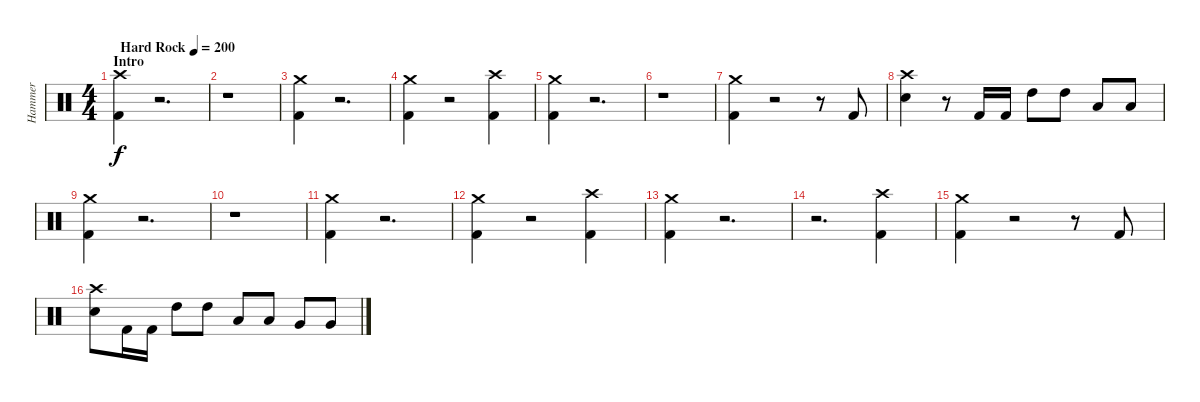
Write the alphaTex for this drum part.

\track ("Hammer" "Hammer") {instrument percussion}
\staff {score}
\articulation defaults
\ts (4 4)
\section ("" "Intro")
\tempo (200 "Hard Rock")
\clef neutral
\ks c
("Crash high (hit)" "Kick (hit) 2").4{dy f} r.2{d} |
r.1 |
("Crash medium (hit)" "Kick (hit) 2").4 r.2{d} |
("Crash medium (hit)" "Kick (hit) 2").4 r.2 ("Kick (hit) 2" "Crash high (hit)").4 |
("Kick (hit) 2" "Crash medium (hit)").4 r.2{d} |
r.1 |
("Crash medium (hit)" "Kick (hit) 2").4 r.2 r.8 "Kick (hit) 2".8 |
("Snare (hit) 2" "Crash high (hit)").4 r.8 "Kick (hit) 2".16 "Kick (hit) 2".16 "High Tom (hit)".8 "High Tom (hit)".8 "Low Tom (hit)".8 "Low Tom (hit)".8 |
("Crash medium (hit)" "Kick (hit) 2").4 r.2{d} |
r.1 |
("Crash medium (hit)" "Kick (hit) 2").4 r.2{d} |
("Crash medium (hit)" "Kick (hit) 2").4 r.2 ("Kick (hit) 2" "Crash high (hit)").4 |
("Kick (hit) 2" "Crash medium (hit)").4 r.2{d} |
r.2{d} ("Crash high (hit)" "Kick (hit) 2").4 |
("Kick (hit) 2" "Crash medium (hit)").4 r.2 r.8 "Kick (hit) 2".8 |
("Snare (hit) 2" "Crash high (hit)").8 "Kick (hit) 2".16 "Kick (hit) 2".16 "High Tom (hit)".8 "High Tom (hit)".8 "Low Tom (hit)".8 "Low Tom (hit)".8 "Very Low Tom (hit)".8 "Very Low Tom (hit)".8
